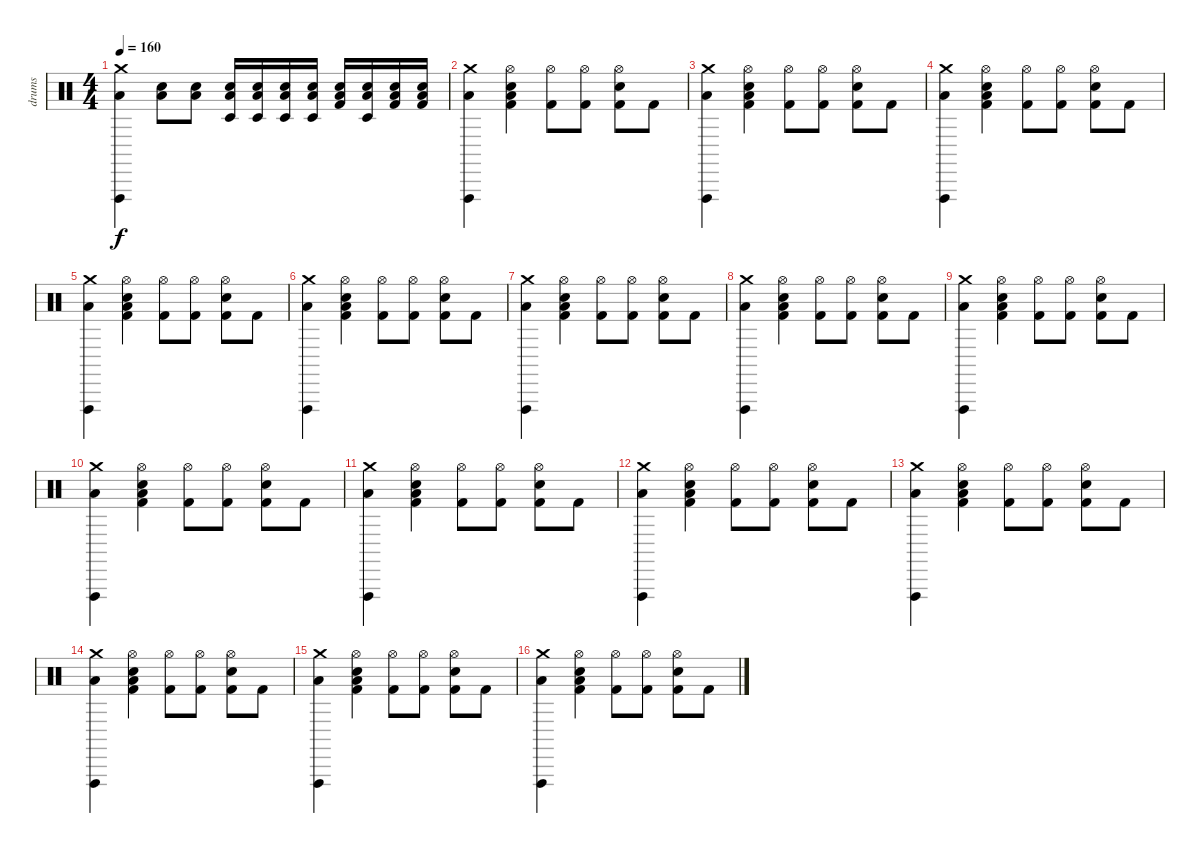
\track ("drums" "drums") {instrument percussion}
\staff {score}
\articulation defaults
\ts (4 4)
\tempo 160
\clef neutral
\ks c
("Crash medium (hit)" "Vibraslap (hit)" "Low Floor Tom (hit)").4{dy f} ("Electric Snare (hit)" "Low Floor Tom (hit)").8 ("Electric Snare (hit)" "Low Floor Tom (hit)").8 ("Electric Snare (hit)" "Low Floor Tom (hit)" "Timbale low (hit)").16 ("Electric Snare (hit)" "Low Floor Tom (hit)" "Timbale low (hit)").16 ("Electric Snare (hit)" "Low Floor Tom (hit)" "Timbale low (hit)").16 ("Electric Snare (hit)" "Low Floor Tom (hit)" "Timbale low (hit)").16 ("Electric Snare (hit)" "Low Floor Tom (hit)" "Kick (hit) 2").16 ("Electric Snare (hit)" "Low Floor Tom (hit)" "Timbale low (hit)").16 ("Electric Snare (hit)" "Low Floor Tom (hit)" "Kick (hit) 2").16 ("Electric Snare (hit)" "Low Floor Tom (hit)" "Kick (hit) 2").16 |
("Crash medium (hit)" "Vibraslap (hit)" "Low Floor Tom (hit)").4 ("Hi-Hat (open)" "Electric Snare (hit)" "Low Floor Tom (hit)" "Kick (hit) 2").4 ("Hi-Hat (open)" "Kick (hit) 2").8 ("Hi-Hat (open)" "Kick (hit) 2").8 ("Hi-Hat (open)" "Electric Snare (hit)" "Kick (hit) 2").8 "Kick (hit) 2".8 |
("Crash medium (hit)" "Vibraslap (hit)" "Low Floor Tom (hit)").4 ("Hi-Hat (open)" "Electric Snare (hit)" "Low Floor Tom (hit)" "Kick (hit) 2").4 ("Hi-Hat (open)" "Kick (hit) 2").8 ("Hi-Hat (open)" "Kick (hit) 2").8 ("Hi-Hat (open)" "Electric Snare (hit)" "Kick (hit) 2").8 "Kick (hit) 2".8 |
("Crash medium (hit)" "Vibraslap (hit)" "Low Floor Tom (hit)").4 ("Hi-Hat (open)" "Electric Snare (hit)" "Low Floor Tom (hit)" "Kick (hit) 2").4 ("Hi-Hat (open)" "Kick (hit) 2").8 ("Hi-Hat (open)" "Kick (hit) 2").8 ("Hi-Hat (open)" "Electric Snare (hit)" "Kick (hit) 2").8 "Kick (hit) 2".8 |
("Crash medium (hit)" "Vibraslap (hit)" "Low Floor Tom (hit)").4 ("Hi-Hat (open)" "Electric Snare (hit)" "Low Floor Tom (hit)" "Kick (hit) 2").4 ("Hi-Hat (open)" "Kick (hit) 2").8 ("Hi-Hat (open)" "Kick (hit) 2").8 ("Hi-Hat (open)" "Electric Snare (hit)" "Kick (hit) 2").8 "Kick (hit) 2".8 |
("Crash medium (hit)" "Vibraslap (hit)" "Low Floor Tom (hit)").4 ("Hi-Hat (open)" "Electric Snare (hit)" "Low Floor Tom (hit)" "Kick (hit) 2").4 ("Hi-Hat (open)" "Kick (hit) 2").8 ("Hi-Hat (open)" "Kick (hit) 2").8 ("Hi-Hat (open)" "Electric Snare (hit)" "Kick (hit) 2").8 "Kick (hit) 2".8 |
("Crash medium (hit)" "Vibraslap (hit)" "Low Floor Tom (hit)").4 ("Hi-Hat (open)" "Electric Snare (hit)" "Low Floor Tom (hit)" "Kick (hit) 2").4 ("Hi-Hat (open)" "Kick (hit) 2").8 ("Hi-Hat (open)" "Kick (hit) 2").8 ("Hi-Hat (open)" "Electric Snare (hit)" "Kick (hit) 2").8 "Kick (hit) 2".8 |
("Crash medium (hit)" "Vibraslap (hit)" "Low Floor Tom (hit)").4 ("Hi-Hat (open)" "Electric Snare (hit)" "Low Floor Tom (hit)" "Kick (hit) 2").4 ("Hi-Hat (open)" "Kick (hit) 2").8 ("Hi-Hat (open)" "Kick (hit) 2").8 ("Hi-Hat (open)" "Electric Snare (hit)" "Kick (hit) 2").8 "Kick (hit) 2".8 |
("Crash medium (hit)" "Vibraslap (hit)" "Low Floor Tom (hit)").4 ("Hi-Hat (open)" "Electric Snare (hit)" "Low Floor Tom (hit)" "Kick (hit) 2").4 ("Hi-Hat (open)" "Kick (hit) 2").8 ("Hi-Hat (open)" "Kick (hit) 2").8 ("Hi-Hat (open)" "Electric Snare (hit)" "Kick (hit) 2").8 "Kick (hit) 2".8 |
("Crash medium (hit)" "Vibraslap (hit)" "Low Floor Tom (hit)").4 ("Hi-Hat (open)" "Electric Snare (hit)" "Low Floor Tom (hit)" "Kick (hit) 2").4 ("Hi-Hat (open)" "Kick (hit) 2").8 ("Hi-Hat (open)" "Kick (hit) 2").8 ("Hi-Hat (open)" "Electric Snare (hit)" "Kick (hit) 2").8 "Kick (hit) 2".8 |
("Crash medium (hit)" "Vibraslap (hit)" "Low Floor Tom (hit)").4 ("Hi-Hat (open)" "Electric Snare (hit)" "Low Floor Tom (hit)" "Kick (hit) 2").4 ("Hi-Hat (open)" "Kick (hit) 2").8 ("Hi-Hat (open)" "Kick (hit) 2").8 ("Hi-Hat (open)" "Electric Snare (hit)" "Kick (hit) 2").8 "Kick (hit) 2".8 |
("Crash medium (hit)" "Vibraslap (hit)" "Low Floor Tom (hit)").4 ("Hi-Hat (open)" "Electric Snare (hit)" "Low Floor Tom (hit)" "Kick (hit) 2").4 ("Hi-Hat (open)" "Kick (hit) 2").8 ("Hi-Hat (open)" "Kick (hit) 2").8 ("Hi-Hat (open)" "Electric Snare (hit)" "Kick (hit) 2").8 "Kick (hit) 2".8 |
("Crash medium (hit)" "Vibraslap (hit)" "Low Floor Tom (hit)").4 ("Hi-Hat (open)" "Electric Snare (hit)" "Low Floor Tom (hit)" "Kick (hit) 2").4 ("Hi-Hat (open)" "Kick (hit) 2").8 ("Hi-Hat (open)" "Kick (hit) 2").8 ("Hi-Hat (open)" "Electric Snare (hit)" "Kick (hit) 2").8 "Kick (hit) 2".8 |
("Crash medium (hit)" "Vibraslap (hit)" "Low Floor Tom (hit)").4 ("Hi-Hat (open)" "Electric Snare (hit)" "Low Floor Tom (hit)" "Kick (hit) 2").4 ("Hi-Hat (open)" "Kick (hit) 2").8 ("Hi-Hat (open)" "Kick (hit) 2").8 ("Hi-Hat (open)" "Electric Snare (hit)" "Kick (hit) 2").8 "Kick (hit) 2".8 |
("Crash medium (hit)" "Vibraslap (hit)" "Low Floor Tom (hit)").4 ("Hi-Hat (open)" "Electric Snare (hit)" "Low Floor Tom (hit)" "Kick (hit) 2").4 ("Hi-Hat (open)" "Kick (hit) 2").8 ("Hi-Hat (open)" "Kick (hit) 2").8 ("Hi-Hat (open)" "Electric Snare (hit)" "Kick (hit) 2").8 "Kick (hit) 2".8 |
("Crash medium (hit)" "Vibraslap (hit)" "Low Floor Tom (hit)").4 ("Hi-Hat (open)" "Electric Snare (hit)" "Low Floor Tom (hit)" "Kick (hit) 2").4 ("Hi-Hat (open)" "Kick (hit) 2").8 ("Hi-Hat (open)" "Kick (hit) 2").8 ("Hi-Hat (open)" "Electric Snare (hit)" "Kick (hit) 2").8 "Kick (hit) 2".8
